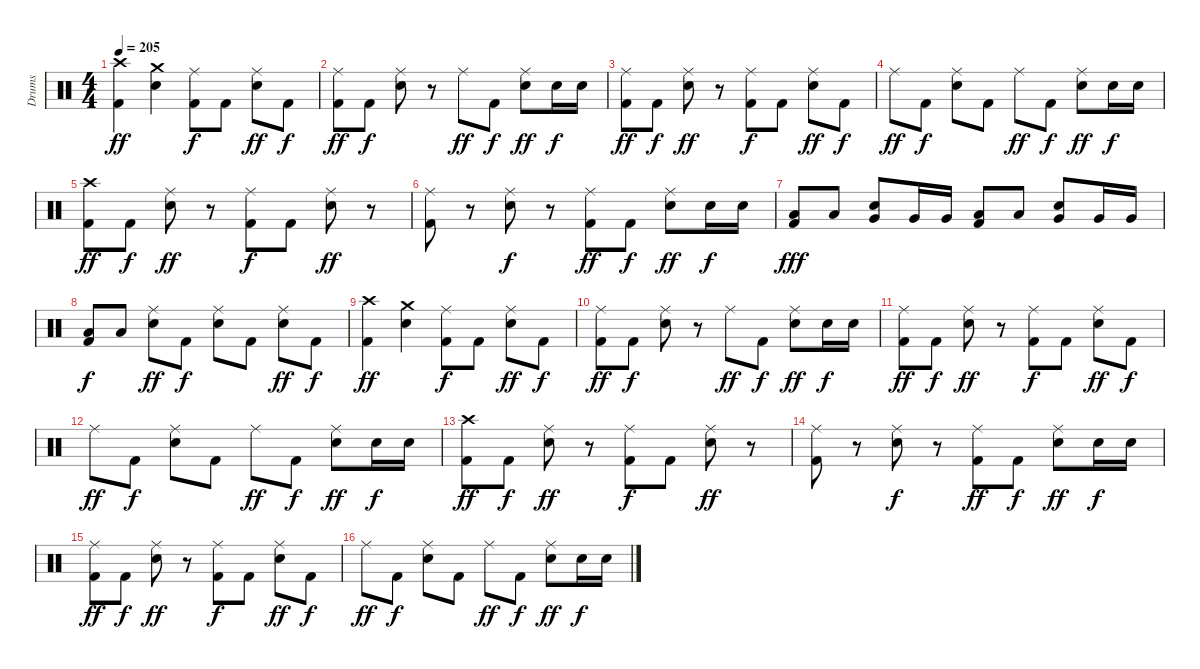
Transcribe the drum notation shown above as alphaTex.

\track ("Drums" "Drums") {instrument percussion}
\staff {score}
\articulation defaults
\ts (4 4)
\tempo 205
\clef neutral
\ks c
("Crash high (hit)" "Kick (hit) 2").4{dy ff} ("Crash medium (hit)" "Electric Snare (hit)").4 ("Ride (middle)" "Kick (hit) 2").8{dy f} "Kick (hit) 2".8 ("Ride (middle)" "Electric Snare (hit)").8{dy ff} "Kick (hit) 2".8{dy f} |
("Ride (middle)" "Kick (hit) 2").8{dy ff} "Kick (hit) 2".8{dy f} ("Ride (middle)" "Electric Snare (hit)").8 r.8 "Ride (middle)".8{dy ff} "Kick (hit) 2".8{dy f} ("Ride (middle)" "Electric Snare (hit)").8{dy ff} "Electric Snare (hit)".16{dy f} "Electric Snare (hit)".16 |
("Ride (middle)" "Kick (hit) 2").8{dy ff} "Kick (hit) 2".8{dy f} ("Ride (middle)" "Electric Snare (hit)").8{dy ff} r.8 ("Ride (middle)" "Kick (hit) 2").8{dy f} "Kick (hit) 2".8 ("Ride (middle)" "Electric Snare (hit)").8{dy ff} "Kick (hit) 2".8{dy f} |
"Ride (middle)".8{dy ff} "Kick (hit) 2".8{dy f} ("Ride (middle)" "Electric Snare (hit)").8 "Kick (hit) 2".8 "Ride (middle)".8{dy ff} "Kick (hit) 2".8{dy f} ("Ride (middle)" "Electric Snare (hit)").8{dy ff} "Electric Snare (hit)".16{dy f} "Electric Snare (hit)".16 |
("Crash high (hit)" "Kick (hit) 2").8{dy ff} "Kick (hit) 2".8{dy f} ("Ride (middle)" "Electric Snare (hit)").8{dy ff} r.8 ("Ride (middle)" "Kick (hit) 2").8{dy f} "Kick (hit) 2".8 ("Ride (middle)" "Electric Snare (hit)").8{dy ff} r.8 |
("Ride (middle)" "Kick (hit) 2").8 r.8 ("Ride (middle)" "Electric Snare (hit)").8{dy f} r.8 ("Ride (middle)" "Kick (hit) 2").8{dy ff} "Kick (hit) 2".8{dy f} ("Ride (middle)" "Electric Snare (hit)").8{dy ff} "Electric Snare (hit)".16{dy f} "Electric Snare (hit)".16 |
("Low Tom (hit)" "Kick (hit) 2").8{dy fff} "Low Tom (hit)".8 ("Very Low Tom (hit)" "Electric Snare (hit)").8 "Very Low Tom (hit)".16 "Very Low Tom (hit)".16 ("Low Tom (hit)" "Kick (hit) 2").8 "Low Tom (hit)".8 ("Very Low Tom (hit)" "Electric Snare (hit)").8 "Very Low Tom (hit)".16 "Very Low Tom (hit)".16 |
("Low Tom (hit)" "Kick (hit) 2").8{dy f} "Low Tom (hit)".8 ("Ride (middle)" "Electric Snare (hit)").8{dy ff} "Kick (hit) 2".8{dy f} ("Ride (middle)" "Electric Snare (hit)").8 "Kick (hit) 2".8 ("Ride (middle)" "Electric Snare (hit)").8{dy ff} "Kick (hit) 2".8{dy f} |
("Crash high (hit)" "Kick (hit) 2").4{dy ff} ("Crash medium (hit)" "Electric Snare (hit)").4 ("Ride (middle)" "Kick (hit) 2").8{dy f} "Kick (hit) 2".8 ("Ride (middle)" "Electric Snare (hit)").8{dy ff} "Kick (hit) 2".8{dy f} |
("Ride (middle)" "Kick (hit) 2").8{dy ff} "Kick (hit) 2".8{dy f} ("Ride (middle)" "Electric Snare (hit)").8 r.8 "Ride (middle)".8{dy ff} "Kick (hit) 2".8{dy f} ("Ride (middle)" "Electric Snare (hit)").8{dy ff} "Electric Snare (hit)".16{dy f} "Electric Snare (hit)".16 |
("Ride (middle)" "Kick (hit) 2").8{dy ff} "Kick (hit) 2".8{dy f} ("Ride (middle)" "Electric Snare (hit)").8{dy ff} r.8 ("Ride (middle)" "Kick (hit) 2").8{dy f} "Kick (hit) 2".8 ("Ride (middle)" "Electric Snare (hit)").8{dy ff} "Kick (hit) 2".8{dy f} |
"Ride (middle)".8{dy ff} "Kick (hit) 2".8{dy f} ("Ride (middle)" "Electric Snare (hit)").8 "Kick (hit) 2".8 "Ride (middle)".8{dy ff} "Kick (hit) 2".8{dy f} ("Ride (middle)" "Electric Snare (hit)").8{dy ff} "Electric Snare (hit)".16{dy f} "Electric Snare (hit)".16 |
("Crash high (hit)" "Kick (hit) 2").8{dy ff} "Kick (hit) 2".8{dy f} ("Ride (middle)" "Electric Snare (hit)").8{dy ff} r.8 ("Ride (middle)" "Kick (hit) 2").8{dy f} "Kick (hit) 2".8 ("Ride (middle)" "Electric Snare (hit)").8{dy ff} r.8 |
("Ride (middle)" "Kick (hit) 2").8 r.8 ("Ride (middle)" "Electric Snare (hit)").8{dy f} r.8 ("Ride (middle)" "Kick (hit) 2").8{dy ff} "Kick (hit) 2".8{dy f} ("Ride (middle)" "Electric Snare (hit)").8{dy ff} "Electric Snare (hit)".16{dy f} "Electric Snare (hit)".16 |
("Ride (middle)" "Kick (hit) 2").8{dy ff} "Kick (hit) 2".8{dy f} ("Ride (middle)" "Electric Snare (hit)").8{dy ff} r.8 ("Ride (middle)" "Kick (hit) 2").8{dy f} "Kick (hit) 2".8 ("Ride (middle)" "Electric Snare (hit)").8{dy ff} "Kick (hit) 2".8{dy f} |
"Ride (middle)".8{dy ff} "Kick (hit) 2".8{dy f} ("Ride (middle)" "Electric Snare (hit)").8 "Kick (hit) 2".8 "Ride (middle)".8{dy ff} "Kick (hit) 2".8{dy f} ("Ride (middle)" "Electric Snare (hit)").8{dy ff} "Electric Snare (hit)".16{dy f} "Electric Snare (hit)".16
